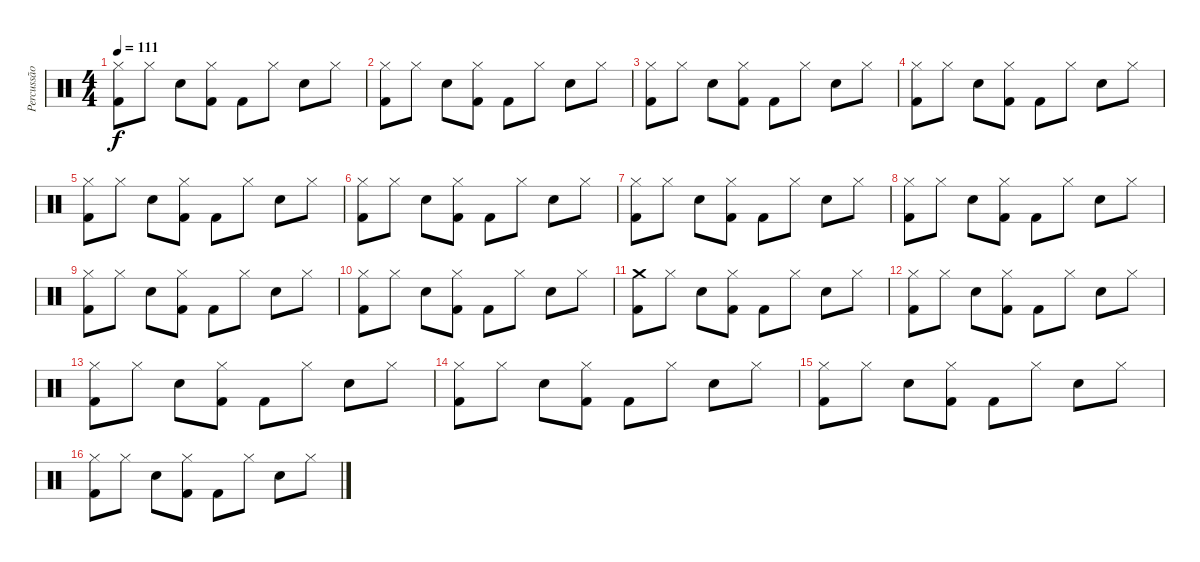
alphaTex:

\track ("Percussão" "Percussão") {instrument percussion}
\staff {score}
\articulation defaults
\ts (4 4)
\tempo 111
\clef neutral
\ks c
("Hi-Hat (closed)" "Kick (hit) 2").8{dy f} "Hi-Hat (closed)".8 "Electric Snare (hit)".8 ("Hi-Hat (closed)" "Kick (hit) 2").8 "Kick (hit) 2".8 "Hi-Hat (closed)".8 "Electric Snare (hit)".8 "Hi-Hat (closed)".8 |
("Hi-Hat (closed)" "Kick (hit) 2").8 "Hi-Hat (closed)".8 "Electric Snare (hit)".8 ("Hi-Hat (closed)" "Kick (hit) 2").8 "Kick (hit) 2".8 "Hi-Hat (closed)".8 "Electric Snare (hit)".8 "Hi-Hat (closed)".8 |
("Hi-Hat (closed)" "Kick (hit) 2").8 "Hi-Hat (closed)".8 "Electric Snare (hit)".8 ("Hi-Hat (closed)" "Kick (hit) 2").8 "Kick (hit) 2".8 "Hi-Hat (closed)".8 "Electric Snare (hit)".8 "Hi-Hat (closed)".8 |
("Hi-Hat (closed)" "Kick (hit) 2").8 "Hi-Hat (closed)".8 "Electric Snare (hit)".8 ("Hi-Hat (closed)" "Kick (hit) 2").8 "Kick (hit) 2".8 "Hi-Hat (closed)".8 "Electric Snare (hit)".8 "Hi-Hat (closed)".8 |
("Hi-Hat (closed)" "Kick (hit) 2").8 "Hi-Hat (closed)".8 "Electric Snare (hit)".8 ("Hi-Hat (closed)" "Kick (hit) 2").8 "Kick (hit) 2".8 "Hi-Hat (closed)".8 "Electric Snare (hit)".8 "Hi-Hat (closed)".8 |
("Hi-Hat (closed)" "Kick (hit) 2").8 "Hi-Hat (closed)".8 "Electric Snare (hit)".8 ("Hi-Hat (closed)" "Kick (hit) 2").8 "Kick (hit) 2".8 "Hi-Hat (closed)".8 "Electric Snare (hit)".8 "Hi-Hat (closed)".8 |
("Hi-Hat (closed)" "Kick (hit) 2").8 "Hi-Hat (closed)".8 "Electric Snare (hit)".8 ("Hi-Hat (closed)" "Kick (hit) 2").8 "Kick (hit) 2".8 "Hi-Hat (closed)".8 "Electric Snare (hit)".8 "Hi-Hat (closed)".8 |
("Hi-Hat (closed)" "Kick (hit) 2").8 "Hi-Hat (closed)".8 "Electric Snare (hit)".8 ("Hi-Hat (closed)" "Kick (hit) 2").8 "Kick (hit) 2".8 "Hi-Hat (closed)".8 "Electric Snare (hit)".8 "Hi-Hat (closed)".8 |
("Hi-Hat (closed)" "Kick (hit) 2").8 "Hi-Hat (closed)".8 "Electric Snare (hit)".8 ("Hi-Hat (closed)" "Kick (hit) 2").8 "Kick (hit) 2".8 "Hi-Hat (closed)".8 "Electric Snare (hit)".8 "Hi-Hat (closed)".8 |
("Hi-Hat (closed)" "Kick (hit) 2").8 "Hi-Hat (closed)".8 "Electric Snare (hit)".8 ("Hi-Hat (closed)" "Kick (hit) 2").8 "Kick (hit) 2".8 "Hi-Hat (closed)".8 "Electric Snare (hit)".8 "Hi-Hat (closed)".8 |
("Crash medium (hit)" "Kick (hit) 2").8 "Hi-Hat (closed)".8 "Electric Snare (hit)".8 ("Hi-Hat (closed)" "Kick (hit) 2").8 "Kick (hit) 2".8 "Hi-Hat (closed)".8 "Electric Snare (hit)".8 "Hi-Hat (closed)".8 |
("Hi-Hat (closed)" "Kick (hit) 2").8 "Hi-Hat (closed)".8 "Electric Snare (hit)".8 ("Hi-Hat (closed)" "Kick (hit) 2").8 "Kick (hit) 2".8 "Hi-Hat (closed)".8 "Electric Snare (hit)".8 "Hi-Hat (closed)".8 |
("Hi-Hat (closed)" "Kick (hit) 2").8 "Hi-Hat (closed)".8 "Electric Snare (hit)".8 ("Hi-Hat (closed)" "Kick (hit) 2").8 "Kick (hit) 2".8 "Hi-Hat (closed)".8 "Electric Snare (hit)".8 "Hi-Hat (closed)".8 |
("Hi-Hat (closed)" "Kick (hit) 2").8 "Hi-Hat (closed)".8 "Electric Snare (hit)".8 ("Hi-Hat (closed)" "Kick (hit) 2").8 "Kick (hit) 2".8 "Hi-Hat (closed)".8 "Electric Snare (hit)".8 "Hi-Hat (closed)".8 |
("Hi-Hat (closed)" "Kick (hit) 2").8 "Hi-Hat (closed)".8 "Electric Snare (hit)".8 ("Hi-Hat (closed)" "Kick (hit) 2").8 "Kick (hit) 2".8 "Hi-Hat (closed)".8 "Electric Snare (hit)".8 "Hi-Hat (closed)".8 |
("Hi-Hat (closed)" "Kick (hit) 2").8 "Hi-Hat (closed)".8 "Electric Snare (hit)".8 ("Hi-Hat (closed)" "Kick (hit) 2").8 "Kick (hit) 2".8 "Hi-Hat (closed)".8 "Electric Snare (hit)".8 "Hi-Hat (closed)".8
